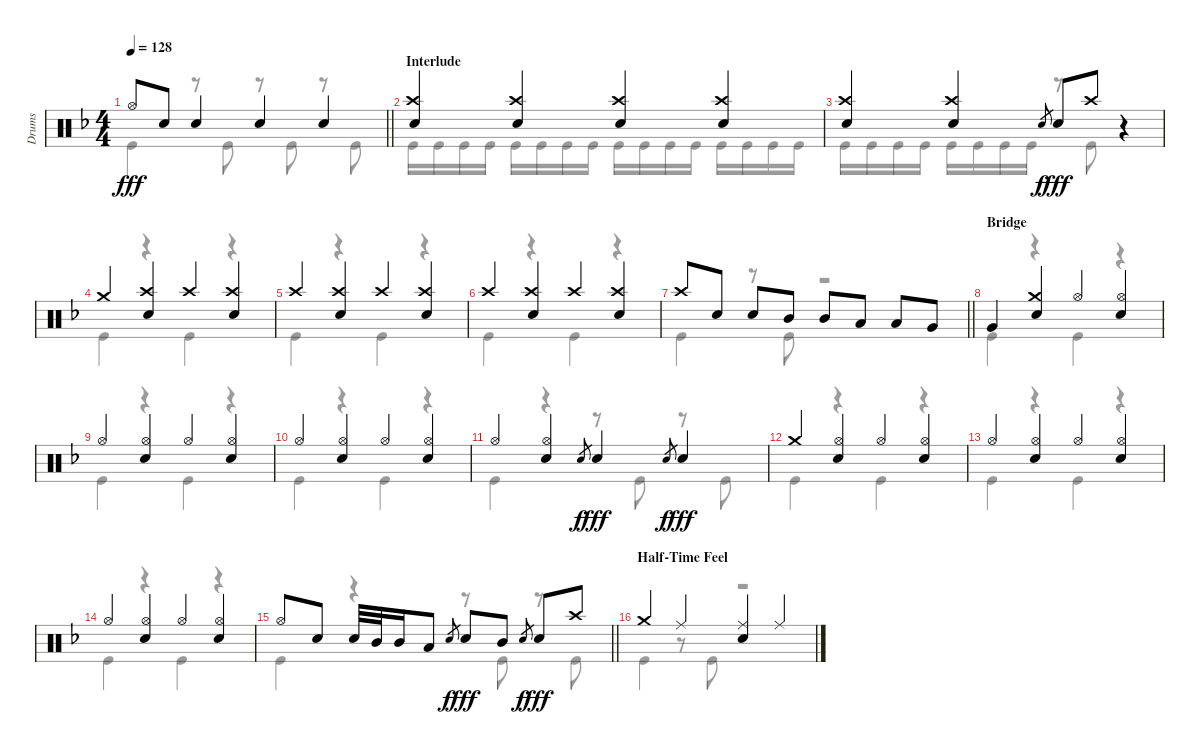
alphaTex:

\track ("Drums" "Drums") {instrument percussion}
\staff {score}
\articulation defaults
\voice
\ts (4 4)
\tempo 128
\clef neutral
\barLineRight lightlight
\ks dminor "Hi-Hat (open)".8{dy fff} "Electric Snare (hit)".8 "Electric Snare (hit)".4 "Electric Snare (hit)".4 "Electric Snare (hit)".4
|
\section ("" "Interlude")
("Crash high (hit)" "Electric Snare (hit)").4 ("Crash high (hit)" "Electric Snare (hit)").4 ("Crash high (hit)" "Electric Snare (hit)").4 ("Crash high (hit)" "Electric Snare (hit)").4 |
("Crash high (hit)" "Electric Snare (hit)").4 ("Crash high (hit)" "Electric Snare (hit)").4 "Electric Snare (hit)".8{gr dy f} "Electric Snare (hit)".8{dy fff} "Crash high (hit)".8 r.4 |
"Crash medium (hit)".4 ("Crash high (hit)" "Electric Snare (hit)").4 "Crash high (hit)".4 ("Crash high (hit)" "Electric Snare (hit)").4 |
"Crash high (hit)".4 ("Crash high (hit)" "Electric Snare (hit)").4 "Crash high (hit)".4 ("Crash high (hit)" "Electric Snare (hit)").4 |
"Crash high (hit)".4 ("Crash high (hit)" "Electric Snare (hit)").4 "Crash high (hit)".4 ("Crash high (hit)" "Electric Snare (hit)").4 |
\barLineRight lightlight "Crash high (hit)".8 "Electric Snare (hit)".8 "Electric Snare (hit)".8 "Mid Tom (hit)".8 "Mid Tom (hit)".8 "Low Tom (hit)".8 "Low Tom (hit)".8 "Very Low Tom (hit)".8
|
\section ("" "Bridge")
"Very Low Tom (hit)".4 ("Crash medium (hit)" "Electric Snare (hit)").4 "Hi-Hat (open)".4 ("Hi-Hat (open)" "Electric Snare (hit)").4 |
"Hi-Hat (open)".4 ("Hi-Hat (open)" "Electric Snare (hit)").4 "Hi-Hat (open)".4 ("Hi-Hat (open)" "Electric Snare (hit)").4 |
"Hi-Hat (open)".4 ("Hi-Hat (open)" "Electric Snare (hit)").4 "Hi-Hat (open)".4 ("Hi-Hat (open)" "Electric Snare (hit)").4 |
"Hi-Hat (open)".4 ("Hi-Hat (open)" "Electric Snare (hit)").4 "Electric Snare (hit)".8{gr dy f} "Electric Snare (hit)".4{dy fff} "Electric Snare (hit)".8{gr dy f} "Electric Snare (hit)".4{dy fff} |
"Crash medium (hit)".4 ("Hi-Hat (open)" "Electric Snare (hit)").4 "Hi-Hat (open)".4 ("Hi-Hat (open)" "Electric Snare (hit)").4 |
"Hi-Hat (open)".4 ("Hi-Hat (open)" "Electric Snare (hit)").4 "Hi-Hat (open)".4 ("Hi-Hat (open)" "Electric Snare (hit)").4 |
"Hi-Hat (open)".4 ("Hi-Hat (open)" "Electric Snare (hit)").4 "Hi-Hat (open)".4 ("Hi-Hat (open)" "Electric Snare (hit)").4 |
\barLineRight lightlight "Hi-Hat (open)".8 "Electric Snare (hit)".8 "Electric Snare (hit)".32 "Mid Tom (hit)".32 "Mid Tom (hit)".16 "Low Tom (hit)".8 "Electric Snare (hit)".8{gr dy f} "Electric Snare (hit)".8{dy fff} "Mid Tom (hit)".8 "Electric Snare (hit)".8{gr dy f} "Electric Snare (hit)".8{dy fff} "Crash high (hit)".8
|
\section ("" "Half-Time Feel")
"Crash medium (hit)".4 "Ride (middle)".4 ("Ride (middle)" "Electric Snare (hit)").4 "Ride (middle)".4
\voice
\clef neutral
\ottava regular
\simile none
\barLineRight lightlight
\ks dminor "Kick (hit)".4{dy fff}
r.8 "Kick (hit)".8 r.8 "Kick (hit)".8 r.8 "Kick (hit)".8 |
"Kick (hit)".16 "Kick (hit)".16 "Kick (hit)".16 "Kick (hit)".16 "Kick (hit)".16 "Kick (hit)".16 "Kick (hit)".16 "Kick (hit)".16 "Kick (hit)".16 "Kick (hit)".16 "Kick (hit)".16 "Kick (hit)".16 "Kick (hit)".16 "Kick (hit)".16 "Kick (hit)".16 "Kick (hit)".16 |
"Kick (hit)".16 "Kick (hit)".16 "Kick (hit)".16 "Kick (hit)".16 "Kick (hit)".16 "Kick (hit)".16 "Kick (hit)".16 "Kick (hit)".16 r.8 "Kick (hit)".8 r.4 |
"Kick (hit)".4 r.4 "Kick (hit)".4 r.4 |
"Kick (hit)".4 r.4 "Kick (hit)".4 r.4 |
"Kick (hit)".4 r.4 "Kick (hit)".4 r.4 |
\barLineRight lightlight "Kick (hit)".4
r.8 "Kick (hit)".8 r.2 |
"Kick (hit)".4 r.4 "Kick (hit)".4 r.4 |
"Kick (hit)".4 r.4 "Kick (hit)".4 r.4 |
"Kick (hit)".4 r.4 "Kick (hit)".4 r.4 |
"Kick (hit)".4 r.4 r.8 "Kick (hit)".8 r.8 "Kick (hit)".8 |
"Kick (hit)".4 r.4 "Kick (hit)".4 r.4 |
"Kick (hit)".4 r.4 "Kick (hit)".4 r.4 |
"Kick (hit)".4 r.4 "Kick (hit)".4 r.4 |
\barLineRight lightlight "Kick (hit)".4
r.4 r.8 "Kick (hit)".8 r.8 "Kick (hit)".8 |
"Kick (hit)".4 r.8 "Kick (hit)".8 r.2
